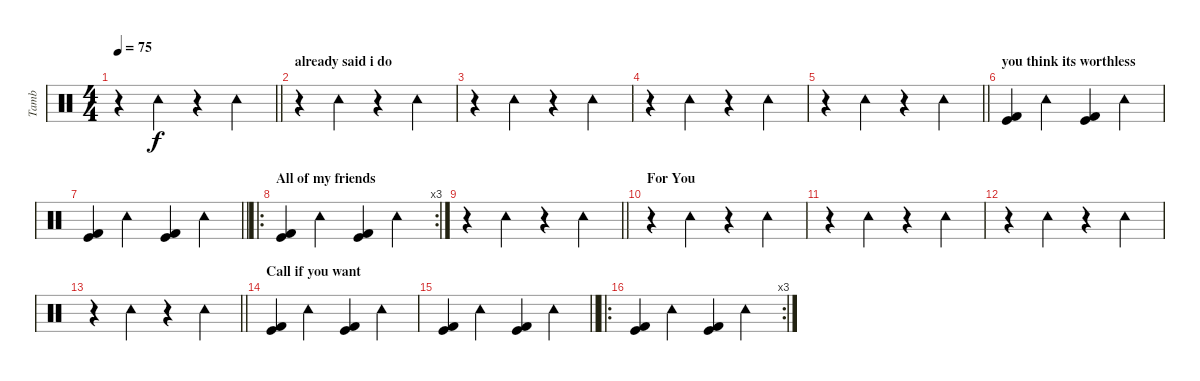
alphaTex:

\track ("Tamb" "Tamb") {instrument percussion}
\staff {score}
\articulation defaults
\ts (4 4)
\tempo 75
\clef neutral
\barLineRight lightlight
\ks c
r.4{dy f} "Tambourine (hit)".4 r.4 "Tambourine (hit)".4 |
\section ("" "already said i do")
r.4 "Tambourine (hit)".4 r.4 "Tambourine (hit)".4 |
r.4 "Tambourine (hit)".4 r.4 "Tambourine (hit)".4 |
r.4 "Tambourine (hit)".4 r.4 "Tambourine (hit)".4 |
\barLineRight lightlight
r.4 "Tambourine (hit)".4 r.4 "Tambourine (hit)".4 |
\section ("" "you think its worthless")
("Kick (hit) 2" "Kick (hit)").4 "Tambourine (hit)".4 ("Kick (hit) 2" "Kick (hit)").4 "Tambourine (hit)".4 |
\barLineRight lightlight
("Kick (hit) 2" "Kick (hit)").4 "Tambourine (hit)".4 ("Kick (hit) 2" "Kick (hit)").4 "Tambourine (hit)".4 |
\ro
\rc 3
\section ("" "All of my friends")
("Kick (hit) 2" "Kick (hit)").4 "Tambourine (hit)".4 ("Kick (hit) 2" "Kick (hit)").4 "Tambourine (hit)".4 |
\barLineRight lightlight
r.4 "Tambourine (hit)".4 r.4 "Tambourine (hit)".4 |
\section ("" "For You")
r.4 "Tambourine (hit)".4 r.4 "Tambourine (hit)".4 |
r.4 "Tambourine (hit)".4 r.4 "Tambourine (hit)".4 |
r.4 "Tambourine (hit)".4 r.4 "Tambourine (hit)".4 |
\barLineRight lightlight
r.4 "Tambourine (hit)".4 r.4 "Tambourine (hit)".4 |
\section ("" "Call if you want")
("Kick (hit) 2" "Kick (hit)").4 "Tambourine (hit)".4 ("Kick (hit) 2" "Kick (hit)").4 "Tambourine (hit)".4 |
\barLineRight lightlight
("Kick (hit) 2" "Kick (hit)").4 "Tambourine (hit)".4 ("Kick (hit) 2" "Kick (hit)").4 "Tambourine (hit)".4 |
\ro
\rc 3
("Kick (hit) 2" "Kick (hit)").4 "Tambourine (hit)".4 ("Kick (hit) 2" "Kick (hit)").4 "Tambourine (hit)".4
